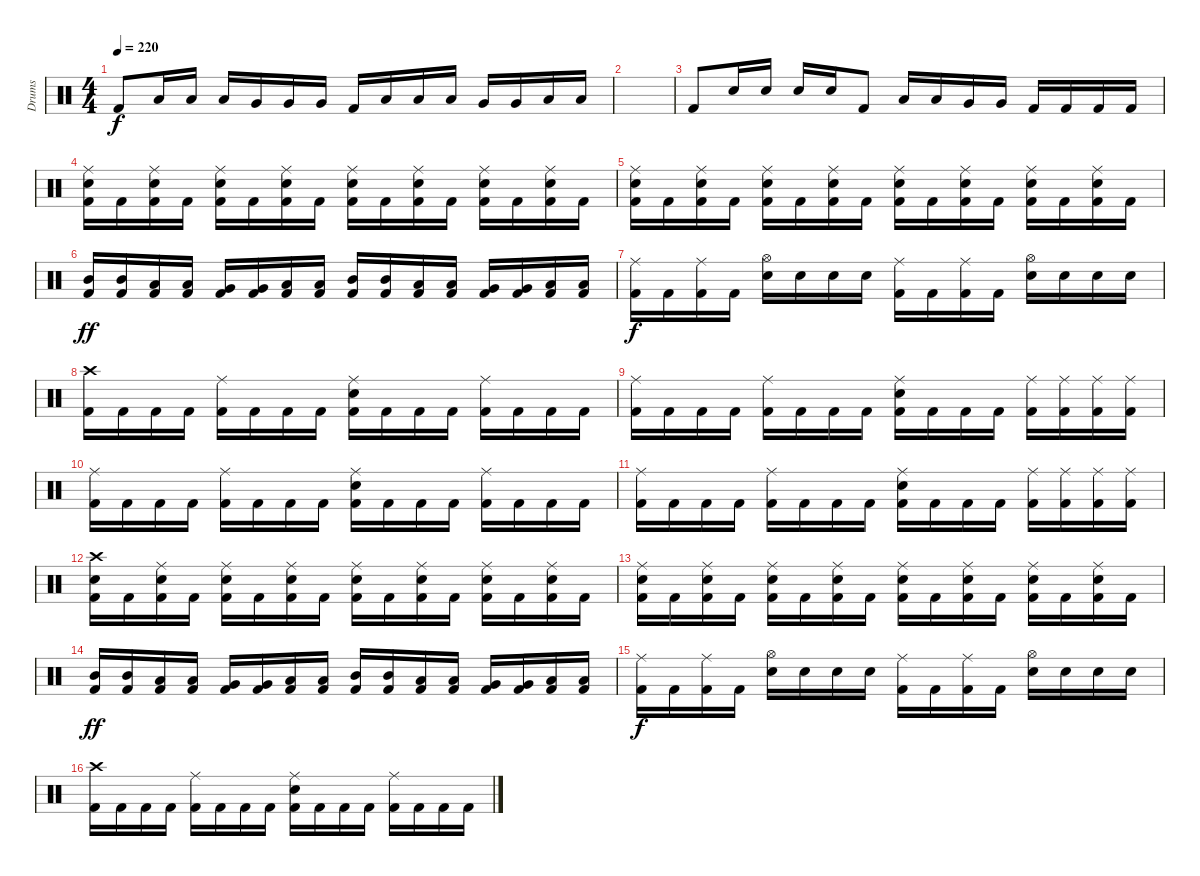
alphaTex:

\track ("Drums" "Drums") {instrument percussion}
\staff {score}
\articulation defaults
\ts (4 4)
\tempo 220
\clef neutral
\ks c "Kick (hit) 2".8{dy f} "Low Tom (hit)".16 "Low Tom (hit)".16 "Low Tom (hit)".16 "Very Low Tom (hit)".16 "Very Low Tom (hit)".16 "Very Low Tom (hit)".16 "Kick (hit) 2".16 "Low Tom (hit)".16 "Low Tom (hit)".16 "Low Tom (hit)".16 "Very Low Tom (hit)".16 "Very Low Tom (hit)".16 "Low Floor Tom (hit)".16 "Low Floor Tom (hit)".16
|
|
"Kick (hit) 2".8 "Electric Snare (hit)".16 "Electric Snare (hit)".16 "Electric Snare (hit)".16 "Electric Snare (hit)".16 "Kick (hit) 2".8 "Low Tom (hit)".16 "Low Tom (hit)".16 "Very Low Tom (hit)".16 "Very Low Tom (hit)".16 "Kick (hit) 2".16 "Kick (hit) 2".16 "Kick (hit) 2".16 "Kick (hit) 2".16 |
("Kick (hit) 2" "Electric Snare (hit)" "Ride (middle)").16 "Kick (hit) 2".16 ("Kick (hit) 2" "Electric Snare (hit)" "Ride (middle)").16 "Kick (hit) 2".16 ("Kick (hit) 2" "Electric Snare (hit)" "Ride (middle)").16 "Kick (hit) 2".16 ("Kick (hit) 2" "Electric Snare (hit)" "Ride (middle)").16 "Kick (hit) 2".16 ("Kick (hit) 2" "Electric Snare (hit)" "Ride (middle)").16 "Kick (hit) 2".16 ("Kick (hit) 2" "Electric Snare (hit)" "Ride (middle)").16 "Kick (hit) 2".16 ("Kick (hit) 2" "Electric Snare (hit)" "Ride (middle)").16 "Kick (hit) 2".16 ("Kick (hit) 2" "Electric Snare (hit)" "Ride (middle)").16 "Kick (hit) 2".16 |
("Kick (hit) 2" "Electric Snare (hit)" "Ride (middle)").16 "Kick (hit) 2".16 ("Kick (hit) 2" "Electric Snare (hit)" "Ride (middle)").16 "Kick (hit) 2".16 ("Kick (hit) 2" "Electric Snare (hit)" "Ride (middle)").16 "Kick (hit) 2".16 ("Kick (hit) 2" "Electric Snare (hit)" "Ride (middle)").16 "Kick (hit) 2".16 ("Kick (hit) 2" "Electric Snare (hit)" "Ride (middle)").16 "Kick (hit) 2".16 ("Kick (hit) 2" "Electric Snare (hit)" "Ride (middle)").16 "Kick (hit) 2".16 ("Kick (hit) 2" "Electric Snare (hit)" "Ride (middle)").16 "Kick (hit) 2".16 ("Kick (hit) 2" "Electric Snare (hit)" "Ride (middle)").16 "Kick (hit) 2".16 |
("Kick (hit) 2" "Mid Tom (hit)").16{dy ff} ("Kick (hit) 2" "Mid Tom (hit)").16 ("Kick (hit) 2" "Low Tom (hit)").16 ("Kick (hit) 2" "Low Tom (hit)").16 ("Kick (hit) 2" "Very Low Tom (hit)").16 ("Kick (hit) 2" "Very Low Tom (hit)").16 ("Kick (hit) 2" "Low Floor Tom (hit)").16 ("Kick (hit) 2" "Low Floor Tom (hit)").16 ("Kick (hit) 2" "Mid Tom (hit)").16 ("Kick (hit) 2" "Mid Tom (hit)").16 ("Kick (hit) 2" "Low Tom (hit)").16 ("Kick (hit) 2" "Low Tom (hit)").16 ("Kick (hit) 2" "Very Low Tom (hit)").16 ("Kick (hit) 2" "Very Low Tom (hit)").16 ("Kick (hit) 2" "Low Floor Tom (hit)").16 ("Kick (hit) 2" "Low Floor Tom (hit)").16 |
("Kick (hit) 2" "Ride (middle)").16{dy f} "Kick (hit) 2".16 ("Kick (hit) 2" "Ride (middle)").16 "Kick (hit) 2".16 ("Electric Snare (hit)" "Hi-Hat (open)").16 "Electric Snare (hit)".16 "Electric Snare (hit)".16 "Electric Snare (hit)".16 ("Kick (hit) 2" "Ride (middle)").16 "Kick (hit) 2".16 ("Kick (hit) 2" "Ride (middle)").16 "Kick (hit) 2".16 ("Electric Snare (hit)" "Hi-Hat (open)").16 "Electric Snare (hit)".16 "Electric Snare (hit)".16 "Electric Snare (hit)".16 |
("Kick (hit) 2" "Crash high (hit)").16 "Kick (hit) 2".16 "Kick (hit) 2".16 "Kick (hit) 2".16 ("Kick (hit) 2" "Ride (middle)").16 "Kick (hit) 2".16 "Kick (hit) 2".16 "Kick (hit) 2".16 ("Kick (hit) 2" "Electric Snare (hit)" "Ride (middle)").16 "Kick (hit) 2".16 "Kick (hit) 2".16 "Kick (hit) 2".16 ("Kick (hit) 2" "Ride (middle)").16 "Kick (hit) 2".16 "Kick (hit) 2".16 "Kick (hit) 2".16 |
("Kick (hit) 2" "Ride (middle)").16 "Kick (hit) 2".16 "Kick (hit) 2".16 "Kick (hit) 2".16 ("Kick (hit) 2" "Ride (middle)").16 "Kick (hit) 2".16 "Kick (hit) 2".16 "Kick (hit) 2".16 ("Kick (hit) 2" "Electric Snare (hit)" "Ride (middle)").16 "Kick (hit) 2".16 "Kick (hit) 2".16 "Kick (hit) 2".16 ("Kick (hit) 2" "Ride (middle)").16 ("Kick (hit) 2" "Ride (middle)").16 ("Kick (hit) 2" "Ride (middle)").16 ("Kick (hit) 2" "Ride (middle)").16 |
("Kick (hit) 2" "Ride (middle)").16 "Kick (hit) 2".16 "Kick (hit) 2".16 "Kick (hit) 2".16 ("Kick (hit) 2" "Ride (middle)").16 "Kick (hit) 2".16 "Kick (hit) 2".16 "Kick (hit) 2".16 ("Kick (hit) 2" "Electric Snare (hit)" "Ride (middle)").16 "Kick (hit) 2".16 "Kick (hit) 2".16 "Kick (hit) 2".16 ("Kick (hit) 2" "Ride (middle)").16 "Kick (hit) 2".16 "Kick (hit) 2".16 "Kick (hit) 2".16 |
("Kick (hit) 2" "Ride (middle)").16 "Kick (hit) 2".16 "Kick (hit) 2".16 "Kick (hit) 2".16 ("Kick (hit) 2" "Ride (middle)").16 "Kick (hit) 2".16 "Kick (hit) 2".16 "Kick (hit) 2".16 ("Kick (hit) 2" "Electric Snare (hit)" "Ride (middle)").16 "Kick (hit) 2".16 "Kick (hit) 2".16 "Kick (hit) 2".16 ("Kick (hit) 2" "Ride (middle)").16 ("Kick (hit) 2" "Ride (middle)").16 ("Kick (hit) 2" "Ride (middle)").16 ("Kick (hit) 2" "Ride (middle)").16 |
("Kick (hit) 2" "Electric Snare (hit)" "Crash high (hit)").16 "Kick (hit) 2".16 ("Kick (hit) 2" "Electric Snare (hit)" "Ride (middle)").16 "Kick (hit) 2".16 ("Kick (hit) 2" "Electric Snare (hit)" "Ride (middle)").16 "Kick (hit) 2".16 ("Kick (hit) 2" "Electric Snare (hit)" "Ride (middle)").16 "Kick (hit) 2".16 ("Kick (hit) 2" "Electric Snare (hit)" "Ride (middle)").16 "Kick (hit) 2".16 ("Kick (hit) 2" "Electric Snare (hit)" "Ride (middle)").16 "Kick (hit) 2".16 ("Kick (hit) 2" "Electric Snare (hit)" "Ride (middle)").16 "Kick (hit) 2".16 ("Kick (hit) 2" "Electric Snare (hit)" "Ride (middle)").16 "Kick (hit) 2".16 |
("Kick (hit) 2" "Electric Snare (hit)" "Ride (middle)").16 "Kick (hit) 2".16 ("Kick (hit) 2" "Electric Snare (hit)" "Ride (middle)").16 "Kick (hit) 2".16 ("Kick (hit) 2" "Electric Snare (hit)" "Ride (middle)").16 "Kick (hit) 2".16 ("Kick (hit) 2" "Electric Snare (hit)" "Ride (middle)").16 "Kick (hit) 2".16 ("Kick (hit) 2" "Electric Snare (hit)" "Ride (middle)").16 "Kick (hit) 2".16 ("Kick (hit) 2" "Electric Snare (hit)" "Ride (middle)").16 "Kick (hit) 2".16 ("Kick (hit) 2" "Electric Snare (hit)" "Ride (middle)").16 "Kick (hit) 2".16 ("Kick (hit) 2" "Electric Snare (hit)" "Ride (middle)").16 "Kick (hit) 2".16 |
("Kick (hit) 2" "Mid Tom (hit)").16{dy ff} ("Kick (hit) 2" "Mid Tom (hit)").16 ("Kick (hit) 2" "Low Tom (hit)").16 ("Kick (hit) 2" "Low Tom (hit)").16 ("Kick (hit) 2" "Very Low Tom (hit)").16 ("Kick (hit) 2" "Very Low Tom (hit)").16 ("Kick (hit) 2" "Low Floor Tom (hit)").16 ("Kick (hit) 2" "Low Floor Tom (hit)").16 ("Kick (hit) 2" "Mid Tom (hit)").16 ("Kick (hit) 2" "Mid Tom (hit)").16 ("Kick (hit) 2" "Low Tom (hit)").16 ("Kick (hit) 2" "Low Tom (hit)").16 ("Kick (hit) 2" "Very Low Tom (hit)").16 ("Kick (hit) 2" "Very Low Tom (hit)").16 ("Kick (hit) 2" "Low Floor Tom (hit)").16 ("Kick (hit) 2" "Low Floor Tom (hit)").16 |
("Kick (hit) 2" "Ride (middle)").16{dy f} "Kick (hit) 2".16 ("Kick (hit) 2" "Ride (middle)").16 "Kick (hit) 2".16 ("Electric Snare (hit)" "Hi-Hat (open)").16 "Electric Snare (hit)".16 "Electric Snare (hit)".16 "Electric Snare (hit)".16 ("Kick (hit) 2" "Ride (middle)").16 "Kick (hit) 2".16 ("Kick (hit) 2" "Ride (middle)").16 "Kick (hit) 2".16 ("Electric Snare (hit)" "Hi-Hat (open)").16 "Electric Snare (hit)".16 "Electric Snare (hit)".16 "Electric Snare (hit)".16 |
("Kick (hit) 2" "Crash high (hit)").16 "Kick (hit) 2".16 "Kick (hit) 2".16 "Kick (hit) 2".16 ("Kick (hit) 2" "Ride (middle)").16 "Kick (hit) 2".16 "Kick (hit) 2".16 "Kick (hit) 2".16 ("Kick (hit) 2" "Electric Snare (hit)" "Ride (middle)").16 "Kick (hit) 2".16 "Kick (hit) 2".16 "Kick (hit) 2".16 ("Kick (hit) 2" "Ride (middle)").16 "Kick (hit) 2".16 "Kick (hit) 2".16 "Kick (hit) 2".16
